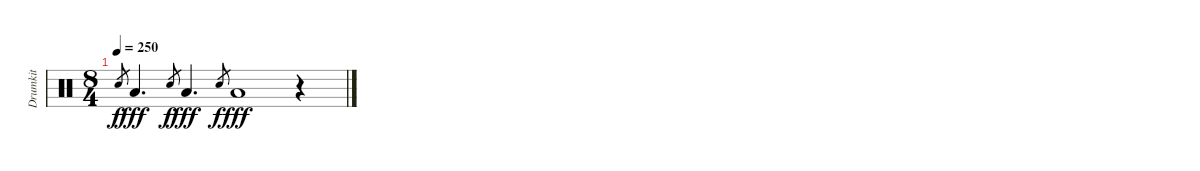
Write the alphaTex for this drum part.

\track ("Drumkit" "Drumkit") {instrument percussion}
\staff {score}
\articulation defaults
\ts (8 4)
\tempo 250
\clef neutral
\ks c "Electric Snare (hit)".8{gr dy f} "Low Floor Tom (hit)".4{d dy fff} "Electric Snare (hit)".8{gr dy f} "Low Floor Tom (hit)".4{d dy fff} "Electric Snare (hit)".8{gr dy f} "Low Floor Tom (hit)".1{dy fff}
r.4
